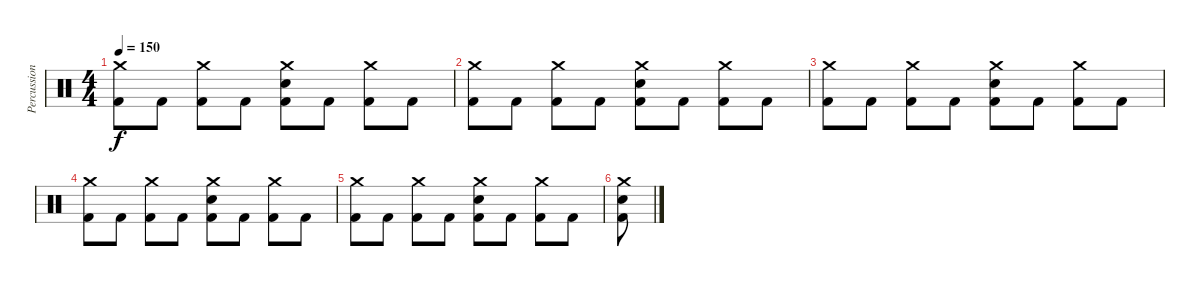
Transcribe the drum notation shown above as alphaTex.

\track ("Percussion" "Percussion") {instrument percussion}
\staff {score}
\articulation defaults
\ts (4 4)
\tempo 150
\clef neutral
\ks c
("Crash medium (hit)" "Kick (hit) 2").8{dy f} "Kick (hit) 2".8 ("Crash medium (hit)" "Kick (hit) 2").8 "Kick (hit) 2".8 ("Crash medium (hit)" "Electric Snare (hit)" "Kick (hit) 2").8 "Kick (hit) 2".8 ("Crash medium (hit)" "Kick (hit) 2").8 "Kick (hit) 2".8 |
("Crash medium (hit)" "Kick (hit) 2").8 "Kick (hit) 2".8 ("Crash medium (hit)" "Kick (hit) 2").8 "Kick (hit) 2".8 ("Crash medium (hit)" "Electric Snare (hit)" "Kick (hit) 2").8 "Kick (hit) 2".8 ("Crash medium (hit)" "Kick (hit) 2").8 "Kick (hit) 2".8 |
("Crash medium (hit)" "Kick (hit) 2").8 "Kick (hit) 2".8 ("Crash medium (hit)" "Kick (hit) 2").8 "Kick (hit) 2".8 ("Crash medium (hit)" "Electric Snare (hit)" "Kick (hit) 2").8 "Kick (hit) 2".8 ("Crash medium (hit)" "Kick (hit) 2").8 "Kick (hit) 2".8 |
("Crash medium (hit)" "Kick (hit) 2").8 "Kick (hit) 2".8 ("Crash medium (hit)" "Kick (hit) 2").8 "Kick (hit) 2".8 ("Crash medium (hit)" "Electric Snare (hit)" "Kick (hit) 2").8 "Kick (hit) 2".8 ("Crash medium (hit)" "Kick (hit) 2").8 "Kick (hit) 2".8 |
("Crash medium (hit)" "Kick (hit) 2").8 "Kick (hit) 2".8 ("Crash medium (hit)" "Kick (hit) 2").8 "Kick (hit) 2".8 ("Crash medium (hit)" "Electric Snare (hit)" "Kick (hit) 2").8 "Kick (hit) 2".8 ("Crash medium (hit)" "Kick (hit) 2").8 "Kick (hit) 2".8 |
("Crash medium (hit)" "Electric Snare (hit)" "Kick (hit) 2").8
